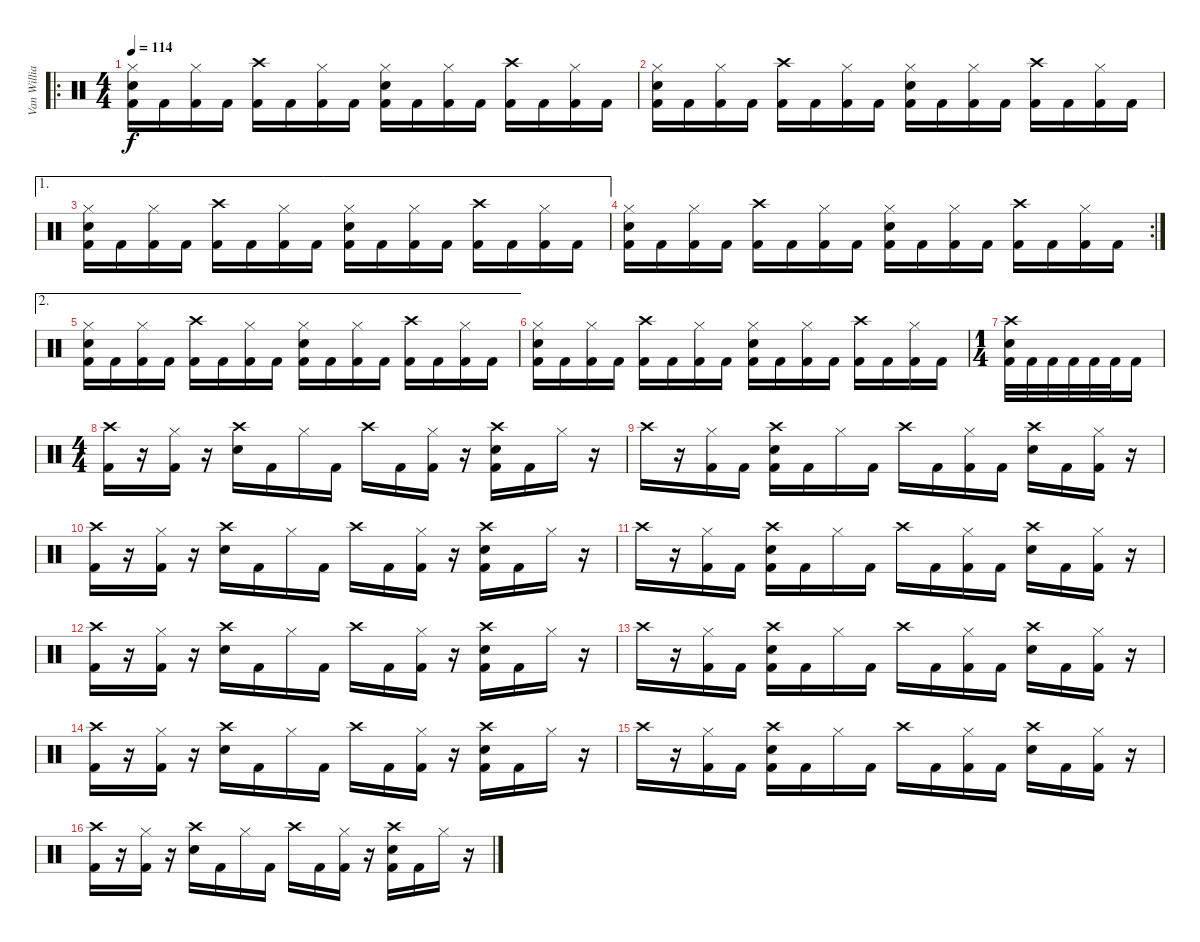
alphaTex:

\track ("Van Williams (Drums)" "Van Willia") {instrument percussion}
\staff {score}
\articulation defaults
\ro
\ts (4 4)
\tempo 114
\clef neutral
\ks c
("Snare (hit) 2" "Hi-Hat (closed)" "Kick (hit) 2").16{dy f} "Kick (hit) 2".16 ("Hi-Hat (closed)" "Kick (hit) 2").16 "Kick (hit) 2".16 ("Crash high (hit)" "Kick (hit) 2").16 "Kick (hit) 2".16 ("Hi-Hat (closed)" "Kick (hit) 2").16 "Kick (hit) 2".16 ("Snare (hit) 2" "Hi-Hat (closed)" "Kick (hit) 2").16 "Kick (hit) 2".16 ("Hi-Hat (closed)" "Kick (hit) 2").16 "Kick (hit) 2".16 ("Crash high (hit)" "Kick (hit) 2").16 "Kick (hit) 2".16 ("Hi-Hat (closed)" "Kick (hit) 2").16 "Kick (hit) 2".16 |
("Snare (hit) 2" "Hi-Hat (closed)" "Kick (hit) 2").16 "Kick (hit) 2".16 ("Hi-Hat (closed)" "Kick (hit) 2").16 "Kick (hit) 2".16 ("Crash high (hit)" "Kick (hit) 2").16 "Kick (hit) 2".16 ("Hi-Hat (closed)" "Kick (hit) 2").16 "Kick (hit) 2".16 ("Snare (hit) 2" "Hi-Hat (closed)" "Kick (hit) 2").16 "Kick (hit) 2".16 ("Hi-Hat (closed)" "Kick (hit) 2").16 "Kick (hit) 2".16 ("Crash high (hit)" "Kick (hit) 2").16 "Kick (hit) 2".16 ("Hi-Hat (closed)" "Kick (hit) 2").16 "Kick (hit) 2".16 |
\ae 1
("Snare (hit) 2" "Hi-Hat (closed)" "Kick (hit) 2").16 "Kick (hit) 2".16 ("Hi-Hat (closed)" "Kick (hit) 2").16 "Kick (hit) 2".16 ("Crash high (hit)" "Kick (hit) 2").16 "Kick (hit) 2".16 ("Hi-Hat (closed)" "Kick (hit) 2").16 "Kick (hit) 2".16 ("Snare (hit) 2" "Hi-Hat (closed)" "Kick (hit) 2").16 "Kick (hit) 2".16 ("Hi-Hat (closed)" "Kick (hit) 2").16 "Kick (hit) 2".16 ("Crash high (hit)" "Kick (hit) 2").16 "Kick (hit) 2".16 ("Hi-Hat (closed)" "Kick (hit) 2").16 "Kick (hit) 2".16 |
\rc 2
("Snare (hit) 2" "Hi-Hat (closed)" "Kick (hit) 2").16 "Kick (hit) 2".16 ("Hi-Hat (closed)" "Kick (hit) 2").16 "Kick (hit) 2".16 ("Crash high (hit)" "Kick (hit) 2").16 "Kick (hit) 2".16 ("Hi-Hat (closed)" "Kick (hit) 2").16 "Kick (hit) 2".16 ("Snare (hit) 2" "Hi-Hat (closed)" "Kick (hit) 2").16 "Kick (hit) 2".16 ("Hi-Hat (closed)" "Kick (hit) 2").16 "Kick (hit) 2".16 ("Crash high (hit)" "Kick (hit) 2").16 "Kick (hit) 2".16 ("Hi-Hat (closed)" "Kick (hit) 2").16 "Kick (hit) 2".16 |
\ae 2
("Snare (hit) 2" "Hi-Hat (closed)" "Kick (hit) 2").16 "Kick (hit) 2".16 ("Hi-Hat (closed)" "Kick (hit) 2").16 "Kick (hit) 2".16 ("Crash high (hit)" "Kick (hit) 2").16 "Kick (hit) 2".16 ("Hi-Hat (closed)" "Kick (hit) 2").16 "Kick (hit) 2".16 ("Snare (hit) 2" "Hi-Hat (closed)" "Kick (hit) 2").16 "Kick (hit) 2".16 ("Hi-Hat (closed)" "Kick (hit) 2").16 "Kick (hit) 2".16 ("Crash high (hit)" "Kick (hit) 2").16 "Kick (hit) 2".16 ("Hi-Hat (closed)" "Kick (hit) 2").16 "Kick (hit) 2".16 |
("Snare (hit) 2" "Hi-Hat (closed)" "Kick (hit) 2").16 "Kick (hit) 2".16 ("Hi-Hat (closed)" "Kick (hit) 2").16 "Kick (hit) 2".16 ("Crash high (hit)" "Kick (hit) 2").16 "Kick (hit) 2".16 ("Hi-Hat (closed)" "Kick (hit) 2").16 "Kick (hit) 2".16 ("Snare (hit) 2" "Hi-Hat (closed)" "Kick (hit) 2").16 "Kick (hit) 2".16 ("Hi-Hat (closed)" "Kick (hit) 2").16 "Kick (hit) 2".16 ("Crash high (hit)" "Kick (hit) 2").16 "Kick (hit) 2".16 ("Hi-Hat (closed)" "Kick (hit) 2").16 "Kick (hit) 2".16 |
\ts (1 4)
("Crash high (hit)" "Snare (hit) 2" "Kick (hit) 2").32 "Kick (hit) 2".32 "Kick (hit) 2".32 "Kick (hit) 2".32 "Kick (hit) 2".32 "Kick (hit) 2".32 "Kick (hit) 2".16 |
\ts (4 4)
("Crash high (hit)" "Kick (hit) 2").16 r.16 ("Hi-Hat (closed)" "Kick (hit) 2").16 r.16 ("Snare (hit) 2" "Crash high (hit)").16 "Kick (hit) 2".16 "Hi-Hat (closed)".16 "Kick (hit) 2".16 "Crash high (hit)".16 "Kick (hit) 2".16 ("Hi-Hat (closed)" "Kick (hit) 2").16 r.16 ("Snare (hit) 2" "Crash high (hit)" "Kick (hit) 2").16 "Kick (hit) 2".16 "Hi-Hat (closed)".16 r.16 |
"Crash high (hit)".16 r.16 ("Hi-Hat (closed)" "Kick (hit) 2").16 "Kick (hit) 2".16 ("Snare (hit) 2" "Crash high (hit)" "Kick (hit) 2").16 "Kick (hit) 2".16 "Hi-Hat (closed)".16 "Kick (hit) 2".16 "Crash high (hit)".16 "Kick (hit) 2".16 ("Hi-Hat (closed)" "Kick (hit) 2").16 "Kick (hit) 2".16 ("Snare (hit) 2" "Crash high (hit)").16 "Kick (hit) 2".16 ("Hi-Hat (closed)" "Kick (hit) 2").16 r.16 |
("Crash high (hit)" "Kick (hit) 2").16 r.16 ("Hi-Hat (closed)" "Kick (hit) 2").16 r.16 ("Snare (hit) 2" "Crash high (hit)").16 "Kick (hit) 2".16 "Hi-Hat (closed)".16 "Kick (hit) 2".16 "Crash high (hit)".16 "Kick (hit) 2".16 ("Hi-Hat (closed)" "Kick (hit) 2").16 r.16 ("Snare (hit) 2" "Crash high (hit)" "Kick (hit) 2").16 "Kick (hit) 2".16 "Hi-Hat (closed)".16 r.16 |
"Crash high (hit)".16 r.16 ("Hi-Hat (closed)" "Kick (hit) 2").16 "Kick (hit) 2".16 ("Snare (hit) 2" "Crash high (hit)" "Kick (hit) 2").16 "Kick (hit) 2".16 "Hi-Hat (closed)".16 "Kick (hit) 2".16 "Crash high (hit)".16 "Kick (hit) 2".16 ("Hi-Hat (closed)" "Kick (hit) 2").16 "Kick (hit) 2".16 ("Snare (hit) 2" "Crash high (hit)").16 "Kick (hit) 2".16 ("Hi-Hat (closed)" "Kick (hit) 2").16 r.16 |
("Crash high (hit)" "Kick (hit) 2").16 r.16 ("Hi-Hat (closed)" "Kick (hit) 2").16 r.16 ("Snare (hit) 2" "Crash high (hit)").16 "Kick (hit) 2".16 "Hi-Hat (closed)".16 "Kick (hit) 2".16 "Crash high (hit)".16 "Kick (hit) 2".16 ("Hi-Hat (closed)" "Kick (hit) 2").16 r.16 ("Snare (hit) 2" "Crash high (hit)" "Kick (hit) 2").16 "Kick (hit) 2".16 "Hi-Hat (closed)".16 r.16 |
"Crash high (hit)".16 r.16 ("Hi-Hat (closed)" "Kick (hit) 2").16 "Kick (hit) 2".16 ("Snare (hit) 2" "Crash high (hit)" "Kick (hit) 2").16 "Kick (hit) 2".16 "Hi-Hat (closed)".16 "Kick (hit) 2".16 "Crash high (hit)".16 "Kick (hit) 2".16 ("Hi-Hat (closed)" "Kick (hit) 2").16 "Kick (hit) 2".16 ("Snare (hit) 2" "Crash high (hit)").16 "Kick (hit) 2".16 ("Hi-Hat (closed)" "Kick (hit) 2").16 r.16 |
("Crash high (hit)" "Kick (hit) 2").16 r.16 ("Hi-Hat (closed)" "Kick (hit) 2").16 r.16 ("Snare (hit) 2" "Crash high (hit)").16 "Kick (hit) 2".16 "Hi-Hat (closed)".16 "Kick (hit) 2".16 "Crash high (hit)".16 "Kick (hit) 2".16 ("Hi-Hat (closed)" "Kick (hit) 2").16 r.16 ("Snare (hit) 2" "Crash high (hit)" "Kick (hit) 2").16 "Kick (hit) 2".16 "Hi-Hat (closed)".16 r.16 |
"Crash high (hit)".16 r.16 ("Hi-Hat (closed)" "Kick (hit) 2").16 "Kick (hit) 2".16 ("Snare (hit) 2" "Crash high (hit)" "Kick (hit) 2").16 "Kick (hit) 2".16 "Hi-Hat (closed)".16 "Kick (hit) 2".16 "Crash high (hit)".16 "Kick (hit) 2".16 ("Hi-Hat (closed)" "Kick (hit) 2").16 "Kick (hit) 2".16 ("Snare (hit) 2" "Crash high (hit)").16 "Kick (hit) 2".16 ("Hi-Hat (closed)" "Kick (hit) 2").16 r.16 |
("Crash high (hit)" "Kick (hit) 2").16 r.16 ("Hi-Hat (closed)" "Kick (hit) 2").16 r.16 ("Snare (hit) 2" "Crash high (hit)").16 "Kick (hit) 2".16 "Hi-Hat (closed)".16 "Kick (hit) 2".16 "Crash high (hit)".16 "Kick (hit) 2".16 ("Hi-Hat (closed)" "Kick (hit) 2").16 r.16 ("Snare (hit) 2" "Crash high (hit)" "Kick (hit) 2").16 "Kick (hit) 2".16 "Hi-Hat (closed)".16 r.16
